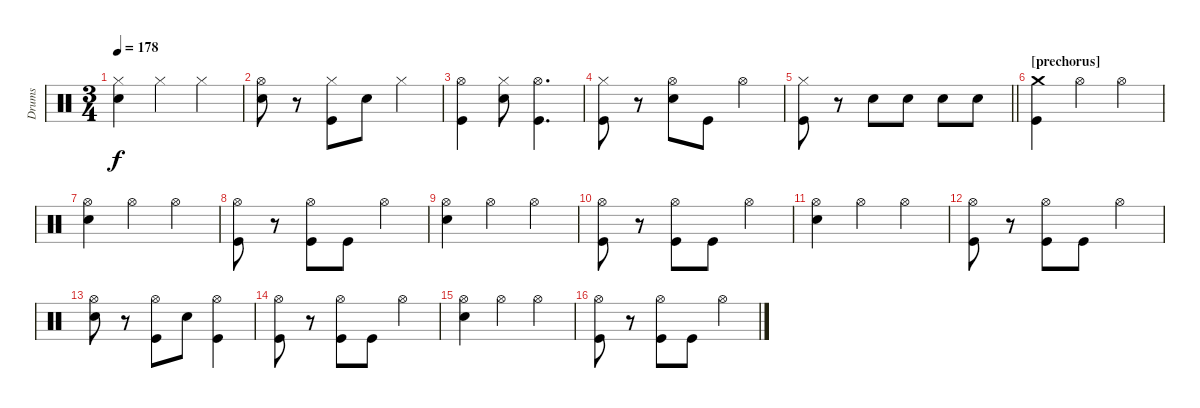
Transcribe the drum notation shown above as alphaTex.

\track ("Drums" "Drums") {instrument percussion}
\staff {score}
\articulation defaults
\ts (3 4)
\tempo 178
\clef neutral
\ks c
("Hi-Hat (closed)" "Snare (hit) 2").4{dy f} "Hi-Hat (closed)".4 "Hi-Hat (closed)".4 |
("Hi-Hat (open)" "Snare (hit) 2").8 r.8 ("Hi-Hat (closed)" "Kick (hit)").8 "Snare (hit) 2".8 "Hi-Hat (closed)".4 |
("Hi-Hat (open)" "Kick (hit)").4 ("Hi-Hat (closed)" "Snare (hit) 2").8 ("Hi-Hat (open)" "Kick (hit)").4{d} |
("Hi-Hat (closed)" "Kick (hit)").8 r.8 ("Hi-Hat (open)" "Snare (hit) 2").8 "Kick (hit)".8 "Hi-Hat (open)".4 |
\barLineRight lightlight
("Hi-Hat (closed)" "Kick (hit)").8 r.8 "Snare (hit) 2".8 "Snare (hit) 2".8 "Snare (hit) 2".8 "Snare (hit) 2".8 |
\section ("" "[prechorus]")
("Crash medium (hit)" "Kick (hit)").4 "Hi-Hat (open)".4 "Hi-Hat (open)".4 |
("Hi-Hat (open)" "Snare (hit) 2").4 "Hi-Hat (open)".4 "Hi-Hat (open)".4 |
("Hi-Hat (open)" "Kick (hit)").8 r.8 ("Hi-Hat (open)" "Kick (hit)").8 "Kick (hit)".8 "Hi-Hat (open)".4 |
("Hi-Hat (open)" "Snare (hit) 2").4 "Hi-Hat (open)".4 "Hi-Hat (open)".4 |
("Hi-Hat (open)" "Kick (hit)").8 r.8 ("Hi-Hat (open)" "Kick (hit)").8 "Kick (hit)".8 "Hi-Hat (open)".4 |
("Hi-Hat (open)" "Snare (hit) 2").4 "Hi-Hat (open)".4 "Hi-Hat (open)".4 |
("Hi-Hat (open)" "Kick (hit)").8 r.8 ("Hi-Hat (open)" "Kick (hit)").8 "Kick (hit)".8 "Hi-Hat (open)".4 |
("Hi-Hat (open)" "Snare (hit) 2").8 r.8 ("Hi-Hat (open)" "Kick (hit)").8 "Snare (hit) 2".8 ("Hi-Hat (open)" "Kick (hit)").4 |
("Hi-Hat (open)" "Kick (hit)").8 r.8 ("Hi-Hat (open)" "Kick (hit)").8 "Kick (hit)".8 "Hi-Hat (open)".4 |
("Hi-Hat (open)" "Snare (hit) 2").4 "Hi-Hat (open)".4 "Hi-Hat (open)".4 |
("Hi-Hat (open)" "Kick (hit)").8 r.8 ("Hi-Hat (open)" "Kick (hit)").8 "Kick (hit)".8 "Hi-Hat (open)".4
